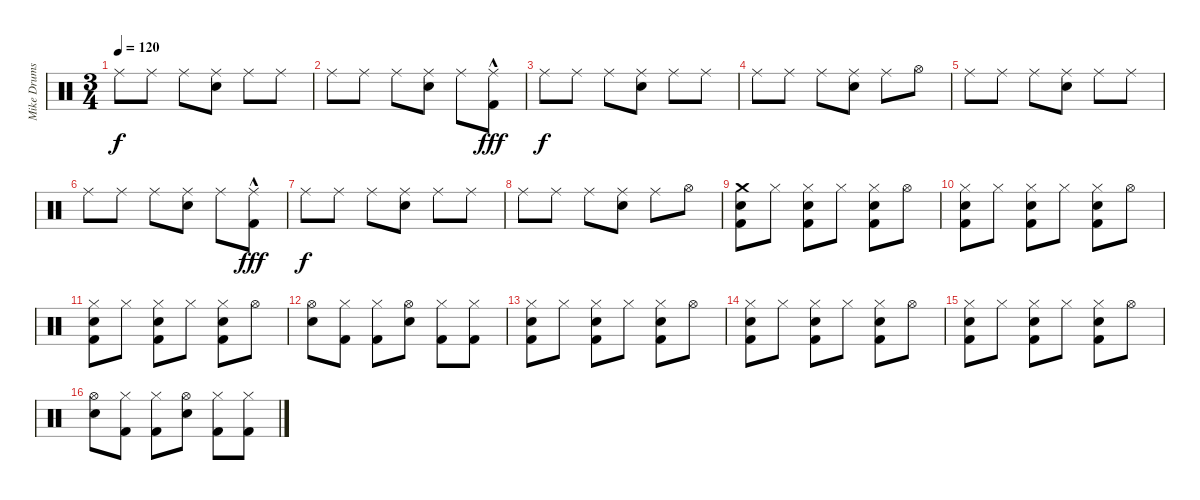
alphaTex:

\track ("Mike Drums" "Mike Drums") {instrument percussion}
\staff {score}
\articulation defaults
\ts (3 4)
\tempo 120
\clef neutral
\ks c "Ride (middle)".8{dy f} "Ride (middle)".8 "Ride (middle)".8
("Ride (middle)" "Electric Snare (hit)").8 "Ride (middle)".8 "Ride (middle)".8 |
"Ride (middle)".8 "Ride (middle)".8 "Ride (middle)".8 ("Ride (middle)" "Electric Snare (hit)").8 "Ride (middle)".8 ("Ride (middle)" "Kick (hit) 2"{hac}).8{dy fff} |
"Ride (middle)".8{dy f} "Ride (middle)".8 "Ride (middle)".8 ("Ride (middle)" "Electric Snare (hit)").8 "Ride (middle)".8 "Ride (middle)".8 |
"Ride (middle)".8 "Ride (middle)".8 "Ride (middle)".8 ("Ride (middle)" "Electric Snare (hit)").8 "Ride (middle)".8 "Hi-Hat (open)".8 |
"Ride (middle)".8 "Ride (middle)".8 "Ride (middle)".8 ("Ride (middle)" "Electric Snare (hit)").8 "Ride (middle)".8 "Ride (middle)".8 |
"Ride (middle)".8 "Ride (middle)".8 "Ride (middle)".8 ("Ride (middle)" "Electric Snare (hit)").8 "Ride (middle)".8 ("Ride (middle)" "Kick (hit) 2"{hac}).8{dy fff} |
"Ride (middle)".8{dy f} "Ride (middle)".8 "Ride (middle)".8 ("Ride (middle)" "Electric Snare (hit)").8 "Ride (middle)".8 "Ride (middle)".8 |
"Ride (middle)".8 "Ride (middle)".8 "Ride (middle)".8 ("Ride (middle)" "Electric Snare (hit)").8 "Ride (middle)".8 "Hi-Hat (open)".8 |
("Crash medium (hit)" "Snare (hit) 2" "Kick (hit) 2").8 "Hi-Hat (closed)".8 ("Hi-Hat (closed)" "Snare (hit) 2" "Kick (hit) 2").8 "Hi-Hat (closed)".8 ("Hi-Hat (closed)" "Snare (hit) 2" "Kick (hit) 2").8 "Hi-Hat (open)".8 |
("Hi-Hat (closed)" "Snare (hit) 2" "Kick (hit) 2").8 "Hi-Hat (closed)".8 ("Hi-Hat (closed)" "Snare (hit) 2" "Kick (hit) 2").8 "Hi-Hat (closed)".8 ("Hi-Hat (closed)" "Snare (hit) 2" "Kick (hit) 2").8 "Hi-Hat (open)".8 |
("Hi-Hat (closed)" "Snare (hit) 2" "Kick (hit) 2").8 "Hi-Hat (closed)".8 ("Hi-Hat (closed)" "Snare (hit) 2" "Kick (hit) 2").8 "Hi-Hat (closed)".8 ("Hi-Hat (closed)" "Snare (hit) 2" "Kick (hit) 2").8 "Hi-Hat (open)".8 |
("Hi-Hat (open)" "Electric Snare (hit)").8 ("Hi-Hat (closed)" "Kick (hit) 2").8 ("Hi-Hat (closed)" "Kick (hit) 2").8 ("Hi-Hat (open)" "Electric Snare (hit)").8 ("Hi-Hat (closed)" "Kick (hit) 2").8 ("Hi-Hat (closed)" "Kick (hit) 2").8 |
("Hi-Hat (closed)" "Snare (hit) 2" "Kick (hit) 2").8 "Hi-Hat (closed)".8 ("Hi-Hat (closed)" "Snare (hit) 2" "Kick (hit) 2").8 "Hi-Hat (closed)".8 ("Hi-Hat (closed)" "Snare (hit) 2" "Kick (hit) 2").8 "Hi-Hat (open)".8 |
("Hi-Hat (closed)" "Snare (hit) 2" "Kick (hit) 2").8 "Hi-Hat (closed)".8 ("Hi-Hat (closed)" "Snare (hit) 2" "Kick (hit) 2").8 "Hi-Hat (closed)".8 ("Hi-Hat (closed)" "Snare (hit) 2" "Kick (hit) 2").8 "Hi-Hat (open)".8 |
("Hi-Hat (closed)" "Snare (hit) 2" "Kick (hit) 2").8 "Hi-Hat (closed)".8 ("Hi-Hat (closed)" "Snare (hit) 2" "Kick (hit) 2").8 "Hi-Hat (closed)".8 ("Hi-Hat (closed)" "Snare (hit) 2" "Kick (hit) 2").8 "Hi-Hat (open)".8 |
("Hi-Hat (open)" "Electric Snare (hit)").8 ("Hi-Hat (closed)" "Kick (hit) 2").8 ("Hi-Hat (closed)" "Kick (hit) 2").8 ("Hi-Hat (open)" "Electric Snare (hit)").8 ("Hi-Hat (closed)" "Kick (hit) 2").8 ("Hi-Hat (closed)" "Kick (hit) 2").8
